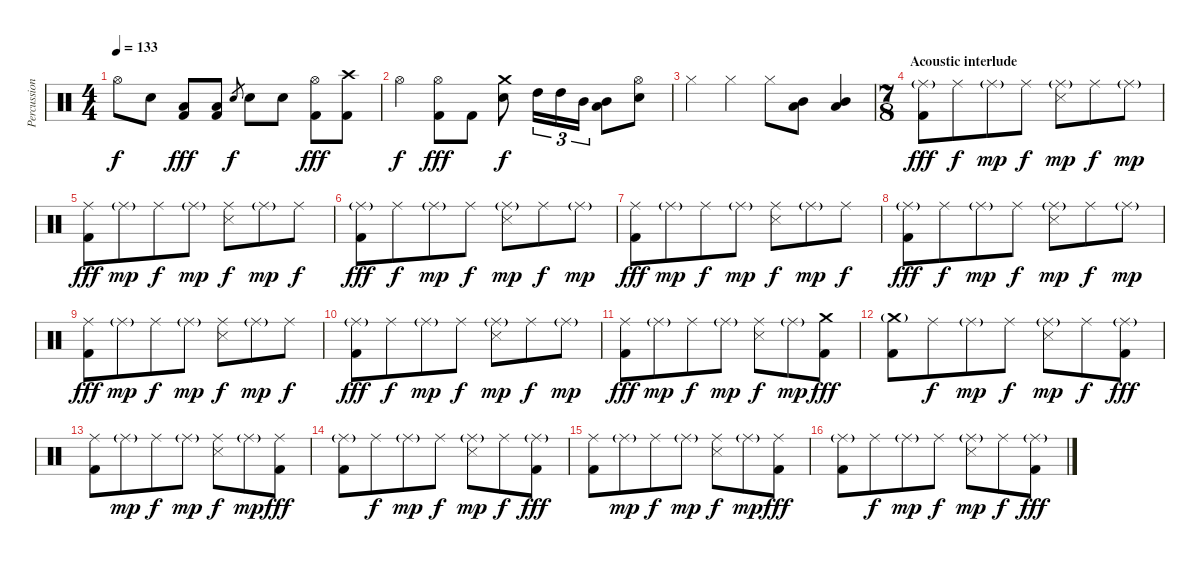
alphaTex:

\track ("Percussion" "Percussion") {instrument percussion}
\staff {score}
\articulation defaults
\ts (4 4)
\tempo 133
\clef neutral
\ks c "Hi-Hat (open)".8{dy f} "Electric Snare (hit)".8
("Low Tom (hit)" "Kick (hit) 2").8{dy fff} ("Low Tom (hit)" "Kick (hit) 2").8 "Electric Snare (hit)".8{gr dy f} "Electric Snare (hit)".8 "Electric Snare (hit)".8 ("Hi-Hat (open)" "Kick (hit) 2").8{dy fff} ("Crash high (hit)" "Kick (hit) 2").8 |
"Hi-Hat (open)".4{dy f} ("Hi-Hat (open)" "Kick (hit) 2").8{dy fff} "Kick (hit) 2".8 ("Crash medium (hit)" "Electric Snare (hit)").8{dy f} "High Tom (hit)".16{tu (3 2)} "High Tom (hit)".16{tu (3 2)} "Mid Tom (hit)".16{tu (3 2)} ("Mid Tom (hit)" "Low Tom (hit)").8 ("Hi-Hat (open)" "Electric Snare (hit)").8 |
"Hi-Hat (closed)".4 "Hi-Hat (closed)".4 "Hi-Hat (closed)".8 ("Mid Tom (hit)" "Low Tom (hit)").8 ("Mid Tom (hit)" "Low Tom (hit)").4 |
\ts (7 8)
\section ("" "Acoustic interlude")
("Ride (middle)"{g} "Kick (hit) 2").8{dy fff} "Ride (middle)".8{dy f} "Ride (middle)"{g}.8{dy mp} "Ride (middle)".8{dy f} ("Ride (middle)"{g} "Snare (side stick) 3").8{dy mp} "Ride (middle)".8{dy f} "Ride (middle)"{g}.8{dy mp} |
("Ride (middle)" "Kick (hit) 2").8{dy fff} "Ride (middle)"{g}.8{dy mp} "Ride (middle)".8{dy f} "Ride (middle)"{g}.8{dy mp} ("Ride (middle)" "Snare (side stick) 3").8{dy f} "Ride (middle)"{g}.8{dy mp} "Ride (middle)".8{dy f} |
("Ride (middle)"{g} "Kick (hit) 2").8{dy fff} "Ride (middle)".8{dy f} "Ride (middle)"{g}.8{dy mp} "Ride (middle)".8{dy f} ("Ride (middle)"{g} "Snare (side stick) 3").8{dy mp} "Ride (middle)".8{dy f} "Ride (middle)"{g}.8{dy mp} |
("Ride (middle)" "Kick (hit) 2").8{dy fff} "Ride (middle)"{g}.8{dy mp} "Ride (middle)".8{dy f} "Ride (middle)"{g}.8{dy mp} ("Ride (middle)" "Snare (side stick) 3").8{dy f} "Ride (middle)"{g}.8{dy mp} "Ride (middle)".8{dy f} |
("Ride (middle)"{g} "Kick (hit) 2").8{dy fff} "Ride (middle)".8{dy f} "Ride (middle)"{g}.8{dy mp} "Ride (middle)".8{dy f} ("Ride (middle)"{g} "Snare (side stick) 3").8{dy mp} "Ride (middle)".8{dy f} "Ride (middle)"{g}.8{dy mp} |
("Ride (middle)" "Kick (hit) 2").8{dy fff} "Ride (middle)"{g}.8{dy mp} "Ride (middle)".8{dy f} "Ride (middle)"{g}.8{dy mp} ("Ride (middle)" "Snare (side stick) 3").8{dy f} "Ride (middle)"{g}.8{dy mp} "Ride (middle)".8{dy f} |
("Ride (middle)"{g} "Kick (hit) 2").8{dy fff} "Ride (middle)".8{dy f} "Ride (middle)"{g}.8{dy mp} "Ride (middle)".8{dy f} ("Ride (middle)"{g} "Snare (side stick) 3").8{dy mp} "Ride (middle)".8{dy f} "Ride (middle)"{g}.8{dy mp} |
("Ride (middle)" "Kick (hit) 2").8{dy fff} "Ride (middle)"{g}.8{dy mp} "Ride (middle)".8{dy f} "Ride (middle)"{g}.8{dy mp} ("Ride (middle)" "Snare (side stick) 3").8{dy f} "Ride (middle)"{g}.8{dy mp} ("Crash medium (hit)" "Kick (hit) 2").8{dy fff} |
("Crash medium (hit)"{g} "Kick (hit) 2").8 "Ride (middle)".8{dy f} "Ride (middle)"{g}.8{dy mp} "Ride (middle)".8{dy f} ("Ride (middle)"{g} "Snare (side stick) 3").8{dy mp} "Ride (middle)".8{dy f} ("Ride (middle)"{g} "Kick (hit) 2").8{dy fff} |
("Ride (middle)" "Kick (hit) 2").8 "Ride (middle)"{g}.8{dy mp} "Ride (middle)".8{dy f} "Ride (middle)"{g}.8{dy mp} ("Ride (middle)" "Snare (side stick) 3").8{dy f} "Ride (middle)"{g}.8{dy mp} ("Ride (middle)" "Kick (hit) 2").8{dy fff} |
("Ride (middle)"{g} "Kick (hit) 2").8 "Ride (middle)".8{dy f} "Ride (middle)"{g}.8{dy mp} "Ride (middle)".8{dy f} ("Ride (middle)"{g} "Snare (side stick) 3").8{dy mp} "Ride (middle)".8{dy f} ("Ride (middle)"{g} "Kick (hit) 2").8{dy fff} |
("Ride (middle)" "Kick (hit) 2").8 "Ride (middle)"{g}.8{dy mp} "Ride (middle)".8{dy f} "Ride (middle)"{g}.8{dy mp} ("Ride (middle)" "Snare (side stick) 3").8{dy f} "Ride (middle)"{g}.8{dy mp} ("Ride (middle)" "Kick (hit) 2").8{dy fff} |
("Ride (middle)"{g} "Kick (hit) 2").8 "Ride (middle)".8{dy f} "Ride (middle)"{g}.8{dy mp} "Ride (middle)".8{dy f} ("Ride (middle)"{g} "Snare (side stick) 3").8{dy mp} "Ride (middle)".8{dy f} ("Ride (middle)"{g} "Kick (hit) 2").8{dy fff}
